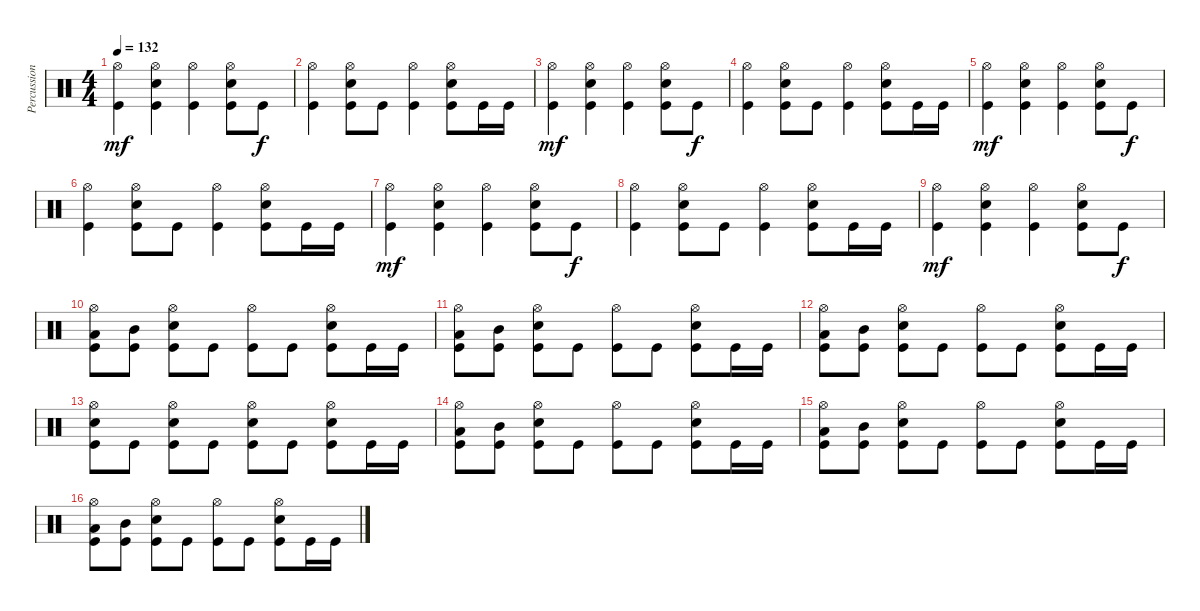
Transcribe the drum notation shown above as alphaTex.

\track ("Percussion" "Percussion") {instrument percussion}
\staff {score}
\articulation defaults
\ts (4 4)
\tempo 132
\clef neutral
\ks c
("Hi-Hat (open)" "Kick (hit)").4{dy mf} ("Hi-Hat (open)" "Electric Snare (hit)" "Kick (hit)").4 ("Hi-Hat (open)" "Kick (hit)").4 ("Hi-Hat (open)" "Electric Snare (hit)" "Kick (hit)").8 "Kick (hit)".8{dy f} |
("Hi-Hat (open)" "Kick (hit)").4 ("Hi-Hat (open)" "Electric Snare (hit)" "Kick (hit)").8 "Kick (hit)".8 ("Hi-Hat (open)" "Kick (hit)").4 ("Hi-Hat (open)" "Electric Snare (hit)" "Kick (hit)").8 "Kick (hit)".16 "Kick (hit)".16 |
("Hi-Hat (open)" "Kick (hit)").4{dy mf} ("Hi-Hat (open)" "Electric Snare (hit)" "Kick (hit)").4 ("Hi-Hat (open)" "Kick (hit)").4 ("Hi-Hat (open)" "Electric Snare (hit)" "Kick (hit)").8 "Kick (hit)".8{dy f} |
("Hi-Hat (open)" "Kick (hit)").4 ("Hi-Hat (open)" "Electric Snare (hit)" "Kick (hit)").8 "Kick (hit)".8 ("Hi-Hat (open)" "Kick (hit)").4 ("Hi-Hat (open)" "Electric Snare (hit)" "Kick (hit)").8 "Kick (hit)".16 "Kick (hit)".16 |
("Hi-Hat (open)" "Kick (hit)").4{dy mf} ("Hi-Hat (open)" "Electric Snare (hit)" "Kick (hit)").4 ("Hi-Hat (open)" "Kick (hit)").4 ("Hi-Hat (open)" "Electric Snare (hit)" "Kick (hit)").8 "Kick (hit)".8{dy f} |
("Hi-Hat (open)" "Kick (hit)").4 ("Hi-Hat (open)" "Electric Snare (hit)" "Kick (hit)").8 "Kick (hit)".8 ("Hi-Hat (open)" "Kick (hit)").4 ("Hi-Hat (open)" "Electric Snare (hit)" "Kick (hit)").8 "Kick (hit)".16 "Kick (hit)".16 |
("Hi-Hat (open)" "Kick (hit)").4{dy mf} ("Hi-Hat (open)" "Electric Snare (hit)" "Kick (hit)").4 ("Hi-Hat (open)" "Kick (hit)").4 ("Hi-Hat (open)" "Electric Snare (hit)" "Kick (hit)").8 "Kick (hit)".8{dy f} |
("Hi-Hat (open)" "Kick (hit)").4 ("Hi-Hat (open)" "Electric Snare (hit)" "Kick (hit)").8 "Kick (hit)".8 ("Hi-Hat (open)" "Kick (hit)").4 ("Hi-Hat (open)" "Electric Snare (hit)" "Kick (hit)").8 "Kick (hit)".16 "Kick (hit)".16 |
("Hi-Hat (open)" "Kick (hit)").4{dy mf} ("Hi-Hat (open)" "Electric Snare (hit)" "Kick (hit)").4 ("Hi-Hat (open)" "Kick (hit)").4 ("Hi-Hat (open)" "Electric Snare (hit)" "Kick (hit)").8 "Kick (hit)".8{dy f} |
("Hi-Hat (open)" "Low Tom (hit)" "Kick (hit)").8 ("Mid Tom (hit)" "Kick (hit)").8 ("Hi-Hat (open)" "Electric Snare (hit)" "Kick (hit)").8 "Kick (hit)".8 ("Hi-Hat (open)" "Kick (hit)").8 "Kick (hit)".8 ("Hi-Hat (open)" "Electric Snare (hit)" "Kick (hit)").8 "Kick (hit)".16 "Kick (hit)".16 |
("Hi-Hat (open)" "Low Tom (hit)" "Kick (hit)").8 ("Mid Tom (hit)" "Kick (hit)").8 ("Hi-Hat (open)" "Electric Snare (hit)" "Kick (hit)").8 "Kick (hit)".8 ("Hi-Hat (open)" "Kick (hit)").8 "Kick (hit)".8 ("Hi-Hat (open)" "Electric Snare (hit)" "Kick (hit)").8 "Kick (hit)".16 "Kick (hit)".16 |
("Hi-Hat (open)" "Low Tom (hit)" "Kick (hit)").8 ("Mid Tom (hit)" "Kick (hit)").8 ("Hi-Hat (open)" "Electric Snare (hit)" "Kick (hit)").8 "Kick (hit)".8 ("Hi-Hat (open)" "Kick (hit)").8 "Kick (hit)".8 ("Hi-Hat (open)" "Electric Snare (hit)" "Kick (hit)").8 "Kick (hit)".16 "Kick (hit)".16 |
("Hi-Hat (open)" "Electric Snare (hit)" "Kick (hit)").8 "Kick (hit)".8 ("Hi-Hat (open)" "Electric Snare (hit)" "Kick (hit)").8 "Kick (hit)".8 ("Hi-Hat (open)" "Electric Snare (hit)" "Kick (hit)").8 "Kick (hit)".8 ("Hi-Hat (open)" "Electric Snare (hit)" "Kick (hit)").8 "Kick (hit)".16 "Kick (hit)".16 |
("Hi-Hat (open)" "Low Tom (hit)" "Kick (hit)").8 ("Mid Tom (hit)" "Kick (hit)").8 ("Hi-Hat (open)" "Electric Snare (hit)" "Kick (hit)").8 "Kick (hit)".8 ("Hi-Hat (open)" "Kick (hit)").8 "Kick (hit)".8 ("Hi-Hat (open)" "Electric Snare (hit)" "Kick (hit)").8 "Kick (hit)".16 "Kick (hit)".16 |
("Hi-Hat (open)" "Low Tom (hit)" "Kick (hit)").8 ("Mid Tom (hit)" "Kick (hit)").8 ("Hi-Hat (open)" "Electric Snare (hit)" "Kick (hit)").8 "Kick (hit)".8 ("Hi-Hat (open)" "Kick (hit)").8 "Kick (hit)".8 ("Hi-Hat (open)" "Electric Snare (hit)" "Kick (hit)").8 "Kick (hit)".16 "Kick (hit)".16 |
("Hi-Hat (open)" "Low Tom (hit)" "Kick (hit)").8 ("Mid Tom (hit)" "Kick (hit)").8 ("Hi-Hat (open)" "Electric Snare (hit)" "Kick (hit)").8 "Kick (hit)".8 ("Hi-Hat (open)" "Kick (hit)").8 "Kick (hit)".8 ("Hi-Hat (open)" "Electric Snare (hit)" "Kick (hit)").8 "Kick (hit)".16 "Kick (hit)".16
